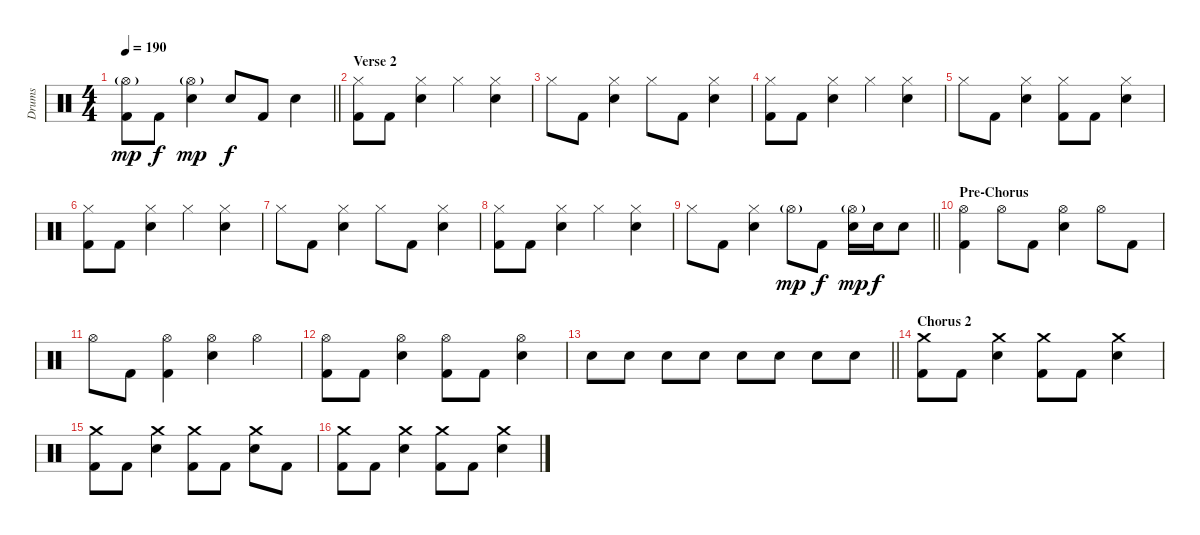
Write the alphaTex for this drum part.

\track ("Drums" "Drums") {instrument percussion}
\staff {score}
\articulation defaults
\ts (4 4)
\tempo 190
\clef neutral
\barLineRight lightlight
\ks c
("Hi-Hat (open)"{g} "Kick (hit) 2").8{dy mp} "Kick (hit) 2".8{dy f} ("Hi-Hat (open)"{g} "Electric Snare (hit)").4{dy mp} "Electric Snare (hit)".8{dy f} "Kick (hit) 2".8 "Electric Snare (hit)".4 |
\section ("" "Verse 2")
("Hi-Hat (closed)" "Kick (hit) 2").8 "Kick (hit) 2".8 ("Hi-Hat (closed)" "Electric Snare (hit)").4 "Hi-Hat (closed)".4 ("Hi-Hat (closed)" "Electric Snare (hit)").4 |
"Hi-Hat (closed)".8 "Kick (hit) 2".8 ("Hi-Hat (closed)" "Electric Snare (hit)").4 "Hi-Hat (closed)".8 "Kick (hit) 2".8 ("Hi-Hat (closed)" "Electric Snare (hit)").4 |
("Hi-Hat (closed)" "Kick (hit) 2").8 "Kick (hit) 2".8 ("Hi-Hat (closed)" "Electric Snare (hit)").4 "Hi-Hat (closed)".4 ("Hi-Hat (closed)" "Electric Snare (hit)").4 |
"Hi-Hat (closed)".8 "Kick (hit) 2".8 ("Hi-Hat (closed)" "Electric Snare (hit)").4 ("Hi-Hat (closed)" "Kick (hit) 2").8 "Kick (hit) 2".8 ("Hi-Hat (closed)" "Electric Snare (hit)").4 |
("Hi-Hat (closed)" "Kick (hit) 2").8 "Kick (hit) 2".8 ("Hi-Hat (closed)" "Electric Snare (hit)").4 "Hi-Hat (closed)".4 ("Hi-Hat (closed)" "Electric Snare (hit)").4 |
"Hi-Hat (closed)".8 "Kick (hit) 2".8 ("Hi-Hat (closed)" "Electric Snare (hit)").4 "Hi-Hat (closed)".8 "Kick (hit) 2".8 ("Hi-Hat (closed)" "Electric Snare (hit)").4 |
("Hi-Hat (closed)" "Kick (hit) 2").8 "Kick (hit) 2".8 ("Hi-Hat (closed)" "Electric Snare (hit)").4 "Hi-Hat (closed)".4 ("Hi-Hat (closed)" "Electric Snare (hit)").4 |
\barLineRight lightlight "Hi-Hat (closed)".8 "Kick (hit) 2".8
("Hi-Hat (closed)" "Electric Snare (hit)").4 "Hi-Hat (open)"{g}.8{dy mp} "Kick (hit) 2".8{dy f} ("Hi-Hat (open)"{g} "Electric Snare (hit)").16{dy mp} "Electric Snare (hit)".16{dy f} "Electric Snare (hit)".8 |
\section ("" "Pre-Chorus")
("Hi-Hat (open)" "Kick (hit) 2").4 "Hi-Hat (open)".8 "Kick (hit) 2".8 ("Hi-Hat (open)" "Electric Snare (hit)").4 "Hi-Hat (open)".8 "Kick (hit) 2".8 |
"Hi-Hat (open)".8 "Kick (hit) 2".8 ("Hi-Hat (open)" "Kick (hit) 2").4 ("Hi-Hat (open)" "Electric Snare (hit)").4 "Hi-Hat (open)".4 |
("Hi-Hat (open)" "Kick (hit) 2").8 "Kick (hit) 2".8 ("Hi-Hat (open)" "Electric Snare (hit)").4 ("Hi-Hat (open)" "Kick (hit) 2").8 "Kick (hit) 2".8 ("Hi-Hat (open)" "Electric Snare (hit)").4 |
\barLineRight lightlight "Electric Snare (hit)".8 "Electric Snare (hit)".8 "Electric Snare (hit)".8 "Electric Snare (hit)".8 "Electric Snare (hit)".8 "Electric Snare (hit)".8 "Electric Snare (hit)".8 "Electric Snare (hit)".8
|
\section ("" "Chorus 2")
("Crash medium (hit)" "Kick (hit) 2").8 "Kick (hit) 2".8 ("Crash medium (hit)" "Electric Snare (hit)").4 ("Crash medium (hit)" "Kick (hit) 2").8 "Kick (hit) 2".8 ("Crash medium (hit)" "Electric Snare (hit)").4 |
("Crash medium (hit)" "Kick (hit) 2").8 "Kick (hit) 2".8 ("Crash medium (hit)" "Electric Snare (hit)").4 ("Crash medium (hit)" "Kick (hit) 2").8 "Kick (hit) 2".8 ("Crash medium (hit)" "Electric Snare (hit)").8 "Kick (hit) 2".8 |
("Crash medium (hit)" "Kick (hit) 2").8 "Kick (hit) 2".8 ("Crash medium (hit)" "Electric Snare (hit)").4 ("Crash medium (hit)" "Kick (hit) 2").8 "Kick (hit) 2".8 ("Crash medium (hit)" "Electric Snare (hit)").4
